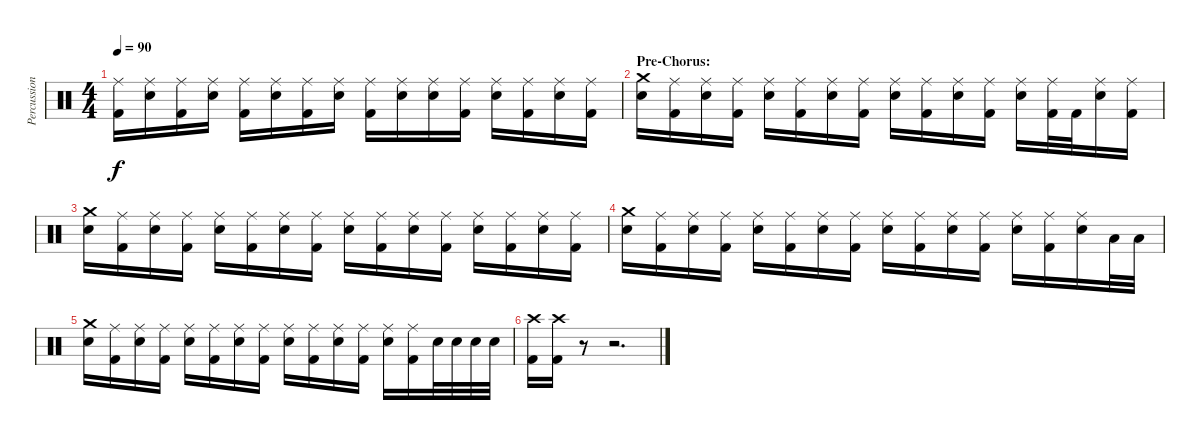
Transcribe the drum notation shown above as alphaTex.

\track ("Percussion" "Percussion") {instrument percussion}
\staff {score}
\articulation defaults
\ts (4 4)
\tempo 90
\clef neutral
\ks c
("Ride (middle)" "Kick (hit) 2").16{dy f} ("Ride (middle)" "Electric Snare (hit)").16 ("Ride (middle)" "Kick (hit) 2").16 ("Ride (middle)" "Electric Snare (hit)").16 ("Ride (middle)" "Kick (hit) 2").16 ("Ride (middle)" "Electric Snare (hit)").16 ("Ride (middle)" "Kick (hit) 2").16 ("Ride (middle)" "Electric Snare (hit)").16 ("Ride (middle)" "Kick (hit) 2").16 ("Ride (middle)" "Electric Snare (hit)").16 ("Ride (middle)" "Electric Snare (hit)").16 ("Ride (middle)" "Kick (hit) 2").16 ("Ride (middle)" "Electric Snare (hit)").16 ("Ride (middle)" "Kick (hit) 2").16 ("Ride (middle)" "Electric Snare (hit)").16 ("Ride (middle)" "Kick (hit) 2").16 |
\section ("" "Pre-Chorus:")
("Crash medium (hit)" "Electric Snare (hit)").16 ("Ride (middle)" "Kick (hit) 2").16 ("Ride (middle)" "Electric Snare (hit)").16 ("Ride (middle)" "Kick (hit) 2").16 ("Ride (middle)" "Electric Snare (hit)").16 ("Ride (middle)" "Kick (hit) 2").16 ("Ride (middle)" "Electric Snare (hit)").16 ("Ride (middle)" "Kick (hit) 2").16 ("Ride (middle)" "Electric Snare (hit)").16 ("Ride (middle)" "Kick (hit) 2").16 ("Ride (middle)" "Electric Snare (hit)").16 ("Ride (middle)" "Kick (hit) 2").16 ("Ride (middle)" "Electric Snare (hit)").16 ("Ride (middle)" "Kick (hit) 2").32 "Kick (hit) 2".32 ("Ride (middle)" "Electric Snare (hit)").16 ("Ride (middle)" "Kick (hit) 2").16 |
("Crash medium (hit)" "Electric Snare (hit)").16 ("Ride (middle)" "Kick (hit) 2").16 ("Ride (middle)" "Electric Snare (hit)").16 ("Ride (middle)" "Kick (hit) 2").16 ("Ride (middle)" "Electric Snare (hit)").16 ("Ride (middle)" "Kick (hit) 2").16 ("Ride (middle)" "Electric Snare (hit)").16 ("Ride (middle)" "Kick (hit) 2").16 ("Ride (middle)" "Electric Snare (hit)").16 ("Ride (middle)" "Kick (hit) 2").16 ("Ride (middle)" "Electric Snare (hit)").16 ("Ride (middle)" "Kick (hit) 2").16 ("Ride (middle)" "Electric Snare (hit)").16 ("Ride (middle)" "Kick (hit) 2").16 ("Ride (middle)" "Electric Snare (hit)").16 ("Ride (middle)" "Kick (hit) 2").16 |
("Crash medium (hit)" "Electric Snare (hit)").16 ("Ride (middle)" "Kick (hit) 2").16 ("Ride (middle)" "Electric Snare (hit)").16 ("Ride (middle)" "Kick (hit) 2").16 ("Ride (middle)" "Electric Snare (hit)").16 ("Ride (middle)" "Kick (hit) 2").16 ("Ride (middle)" "Electric Snare (hit)").16 ("Ride (middle)" "Kick (hit) 2").16 ("Ride (middle)" "Electric Snare (hit)").16 ("Ride (middle)" "Kick (hit) 2").16 ("Ride (middle)" "Electric Snare (hit)").16 ("Ride (middle)" "Kick (hit) 2").16 ("Ride (middle)" "Electric Snare (hit)").16 ("Ride (middle)" "Kick (hit) 2").16 ("Ride (middle)" "Electric Snare (hit)").16 "Low Tom (hit)".32 "Low Tom (hit)".32 |
("Crash medium (hit)" "Electric Snare (hit)").16 ("Ride (middle)" "Kick (hit) 2").16 ("Ride (middle)" "Electric Snare (hit)").16 ("Ride (middle)" "Kick (hit) 2").16 ("Ride (middle)" "Electric Snare (hit)").16 ("Ride (middle)" "Kick (hit) 2").16 ("Ride (middle)" "Electric Snare (hit)").16 ("Ride (middle)" "Kick (hit) 2").16 ("Ride (middle)" "Electric Snare (hit)").16 ("Ride (middle)" "Kick (hit) 2").16 ("Ride (middle)" "Electric Snare (hit)").16 ("Ride (middle)" "Kick (hit) 2").16 ("Ride (middle)" "Electric Snare (hit)").16 ("Ride (middle)" "Kick (hit) 2").16 "Electric Snare (hit)".32 "Electric Snare (hit)".32 "Electric Snare (hit)".32 "Electric Snare (hit)".32 |
("Crash high (hit)" "Kick (hit) 2").16 ("Crash high (hit)" "Kick (hit) 2").16 r.8 r.2{d}
